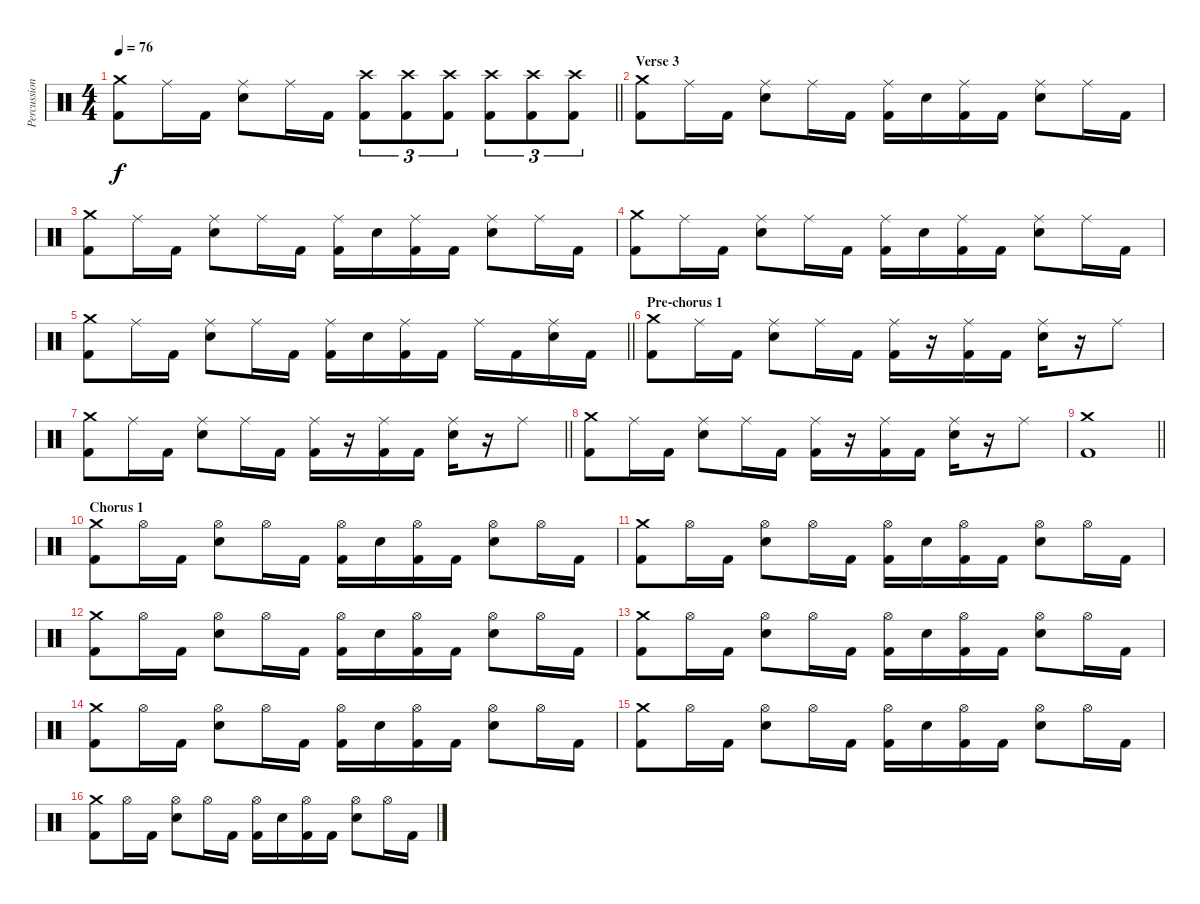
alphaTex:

\track ("Percussions" "Percussion") {instrument percussion}
\staff {score}
\articulation defaults
\ts (4 4)
\tempo 76
\clef neutral
\barLineRight lightlight
\ks c
("Crash medium (hit)" "Kick (hit) 2").8{dy f} "Ride (middle)".16 "Kick (hit) 2".16 ("Ride (middle)" "Electric Snare (hit)").8 "Ride (middle)".16 "Kick (hit) 2".16 ("Crash high (hit)" "Kick (hit) 2").8{tu (3 2)} ("Crash high (hit)" "Kick (hit) 2").8{tu (3 2)} ("Crash high (hit)" "Kick (hit) 2").8{tu (3 2)} ("Crash high (hit)" "Kick (hit) 2").8{tu (3 2)} ("Crash high (hit)" "Kick (hit) 2").8{tu (3 2)} ("Crash high (hit)" "Kick (hit) 2").8{tu (3 2)} |
\section ("" "Verse 3")
("Crash medium (hit)" "Kick (hit) 2").8 "Ride (middle)".16 "Kick (hit) 2".16 ("Ride (middle)" "Electric Snare (hit)").8 "Ride (middle)".16 "Kick (hit) 2".16 ("Ride (middle)" "Kick (hit) 2").16 "Electric Snare (hit)".16 ("Ride (middle)" "Kick (hit) 2").16 "Kick (hit) 2".16 ("Ride (middle)" "Electric Snare (hit)").8 "Ride (middle)".16 "Kick (hit) 2".16 |
("Crash medium (hit)" "Kick (hit) 2").8 "Ride (middle)".16 "Kick (hit) 2".16 ("Ride (middle)" "Electric Snare (hit)").8 "Ride (middle)".16 "Kick (hit) 2".16 ("Ride (middle)" "Kick (hit) 2").16 "Electric Snare (hit)".16 ("Ride (middle)" "Kick (hit) 2").16 "Kick (hit) 2".16 ("Ride (middle)" "Electric Snare (hit)").8 "Ride (middle)".16 "Kick (hit) 2".16 |
("Crash medium (hit)" "Kick (hit) 2").8 "Ride (middle)".16 "Kick (hit) 2".16 ("Ride (middle)" "Electric Snare (hit)").8 "Ride (middle)".16 "Kick (hit) 2".16 ("Ride (middle)" "Kick (hit) 2").16 "Electric Snare (hit)".16 ("Ride (middle)" "Kick (hit) 2").16 "Kick (hit) 2".16 ("Ride (middle)" "Electric Snare (hit)").8 "Ride (middle)".16 "Kick (hit) 2".16 |
\barLineRight lightlight
("Crash medium (hit)" "Kick (hit) 2").8 "Ride (middle)".16 "Kick (hit) 2".16 ("Ride (middle)" "Electric Snare (hit)").8 "Ride (middle)".16 "Kick (hit) 2".16 ("Ride (middle)" "Kick (hit) 2").16 "Electric Snare (hit)".16 ("Ride (middle)" "Kick (hit) 2").16 "Kick (hit) 2".16 "Ride (middle)".16 "Kick (hit) 2".16 ("Ride (middle)" "Electric Snare (hit)").16 "Kick (hit) 2".16 |
\section ("" "Pre-chorus 1")
("Crash medium (hit)" "Kick (hit) 2").8 "Ride (middle)".16 "Kick (hit) 2".16 ("Ride (middle)" "Electric Snare (hit)").8 "Ride (middle)".16 "Kick (hit) 2".16 ("Ride (middle)" "Kick (hit) 2").16 r.16 ("Ride (middle)" "Kick (hit) 2").16 "Kick (hit) 2".16 ("Ride (middle)" "Electric Snare (hit)").16 r.16 "Ride (middle)".8 |
\barLineRight lightlight
("Crash medium (hit)" "Kick (hit) 2").8 "Ride (middle)".16 "Kick (hit) 2".16 ("Ride (middle)" "Electric Snare (hit)").8 "Ride (middle)".16 "Kick (hit) 2".16 ("Ride (middle)" "Kick (hit) 2").16 r.16 ("Ride (middle)" "Kick (hit) 2").16 "Kick (hit) 2".16 ("Ride (middle)" "Electric Snare (hit)").16 r.16 "Ride (middle)".8 |
("Crash medium (hit)" "Kick (hit) 2").8 "Ride (middle)".16 "Kick (hit) 2".16 ("Ride (middle)" "Electric Snare (hit)").8 "Ride (middle)".16 "Kick (hit) 2".16 ("Ride (middle)" "Kick (hit) 2").16 r.16 ("Ride (middle)" "Kick (hit) 2").16 "Kick (hit) 2".16 ("Ride (middle)" "Electric Snare (hit)").16 r.16 "Ride (middle)".8 |
\barLineRight lightlight
("Crash medium (hit)" "Kick (hit) 2").1 |
\section ("" "Chorus 1")
("Crash medium (hit)" "Kick (hit) 2").8 "Hi-Hat (open)".16 "Kick (hit) 2".16 ("Hi-Hat (open)" "Electric Snare (hit)").8 "Hi-Hat (open)".16 "Kick (hit) 2".16 ("Hi-Hat (open)" "Kick (hit) 2").16 "Electric Snare (hit)".16 ("Hi-Hat (open)" "Kick (hit) 2").16 "Kick (hit) 2".16 ("Hi-Hat (open)" "Electric Snare (hit)").8 "Hi-Hat (open)".16 "Kick (hit) 2".16 |
("Crash medium (hit)" "Kick (hit) 2").8 "Hi-Hat (open)".16 "Kick (hit) 2".16 ("Hi-Hat (open)" "Electric Snare (hit)").8 "Hi-Hat (open)".16 "Kick (hit) 2".16 ("Hi-Hat (open)" "Kick (hit) 2").16 "Electric Snare (hit)".16 ("Hi-Hat (open)" "Kick (hit) 2").16 "Kick (hit) 2".16 ("Hi-Hat (open)" "Electric Snare (hit)").8 "Hi-Hat (open)".16 "Kick (hit) 2".16 |
("Crash medium (hit)" "Kick (hit) 2").8 "Hi-Hat (open)".16 "Kick (hit) 2".16 ("Hi-Hat (open)" "Electric Snare (hit)").8 "Hi-Hat (open)".16 "Kick (hit) 2".16 ("Hi-Hat (open)" "Kick (hit) 2").16 "Electric Snare (hit)".16 ("Hi-Hat (open)" "Kick (hit) 2").16 "Kick (hit) 2".16 ("Hi-Hat (open)" "Electric Snare (hit)").8 "Hi-Hat (open)".16 "Kick (hit) 2".16 |
("Crash medium (hit)" "Kick (hit) 2").8 "Hi-Hat (open)".16 "Kick (hit) 2".16 ("Hi-Hat (open)" "Electric Snare (hit)").8 "Hi-Hat (open)".16 "Kick (hit) 2".16 ("Hi-Hat (open)" "Kick (hit) 2").16 "Electric Snare (hit)".16 ("Hi-Hat (open)" "Kick (hit) 2").16 "Kick (hit) 2".16 ("Hi-Hat (open)" "Electric Snare (hit)").8 "Hi-Hat (open)".16 "Kick (hit) 2".16 |
("Crash medium (hit)" "Kick (hit) 2").8 "Hi-Hat (open)".16 "Kick (hit) 2".16 ("Hi-Hat (open)" "Electric Snare (hit)").8 "Hi-Hat (open)".16 "Kick (hit) 2".16 ("Hi-Hat (open)" "Kick (hit) 2").16 "Electric Snare (hit)".16 ("Hi-Hat (open)" "Kick (hit) 2").16 "Kick (hit) 2".16 ("Hi-Hat (open)" "Electric Snare (hit)").8 "Hi-Hat (open)".16 "Kick (hit) 2".16 |
("Crash medium (hit)" "Kick (hit) 2").8 "Hi-Hat (open)".16 "Kick (hit) 2".16 ("Hi-Hat (open)" "Electric Snare (hit)").8 "Hi-Hat (open)".16 "Kick (hit) 2".16 ("Hi-Hat (open)" "Kick (hit) 2").16 "Electric Snare (hit)".16 ("Hi-Hat (open)" "Kick (hit) 2").16 "Kick (hit) 2".16 ("Hi-Hat (open)" "Electric Snare (hit)").8 "Hi-Hat (open)".16 "Kick (hit) 2".16 |
("Crash medium (hit)" "Kick (hit) 2").8 "Hi-Hat (open)".16 "Kick (hit) 2".16 ("Hi-Hat (open)" "Electric Snare (hit)").8 "Hi-Hat (open)".16 "Kick (hit) 2".16 ("Hi-Hat (open)" "Kick (hit) 2").16 "Electric Snare (hit)".16 ("Hi-Hat (open)" "Kick (hit) 2").16 "Kick (hit) 2".16 ("Hi-Hat (open)" "Electric Snare (hit)").8 "Hi-Hat (open)".16 "Kick (hit) 2".16
